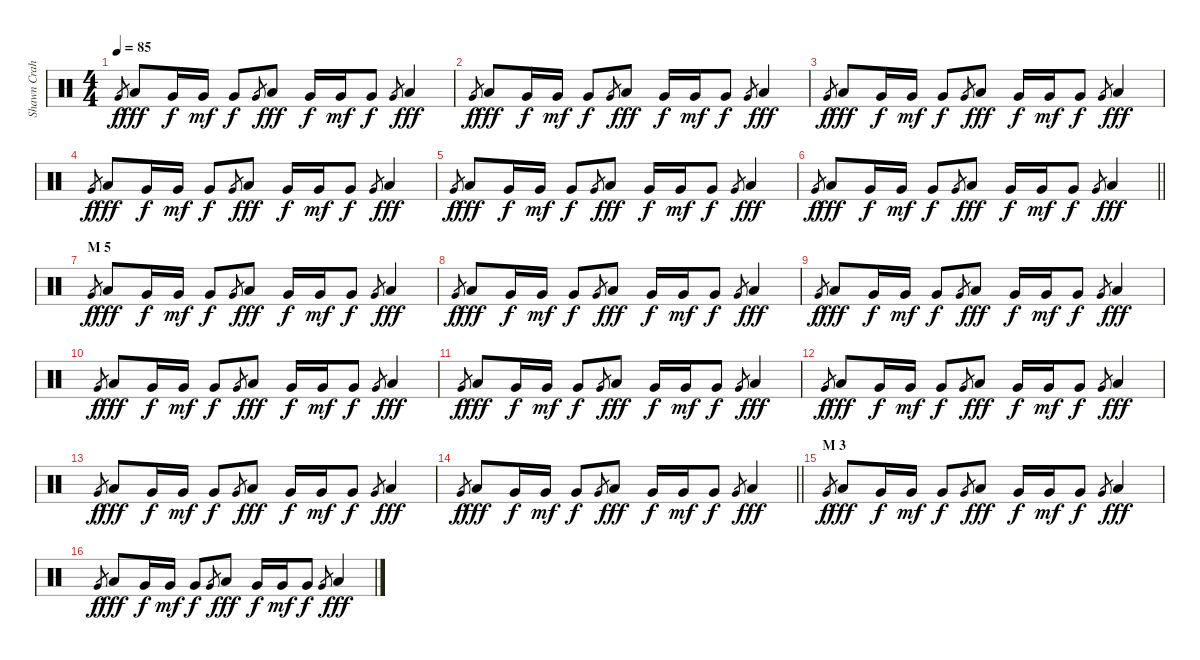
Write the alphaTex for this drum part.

\track ("Shawn Crahan" "Shawn Crah") {instrument percussion}
\staff {score}
\articulation defaults
\ts (4 4)
\tempo 85
\clef neutral
\ks c "Very Low Tom (hit)".8{gr dy f} "Low Tom (hit)".8{dy fff} "Very Low Tom (hit)".16{dy f} "Very Low Tom (hit)".16{dy mf} "Very Low Tom (hit)".8{dy f} "Very Low Tom (hit)".8{gr} "Low Tom (hit)".8{dy fff} "Very Low Tom (hit)".16{dy f} "Very Low Tom (hit)".16{dy mf} "Very Low Tom (hit)".8{dy f} "Very Low Tom (hit)".8{gr} "Low Tom (hit)".4{dy fff}
|
"Very Low Tom (hit)".8{gr dy f} "Low Tom (hit)".8{dy fff} "Very Low Tom (hit)".16{dy f} "Very Low Tom (hit)".16{dy mf} "Very Low Tom (hit)".8{dy f} "Very Low Tom (hit)".8{gr} "Low Tom (hit)".8{dy fff} "Very Low Tom (hit)".16{dy f} "Very Low Tom (hit)".16{dy mf} "Very Low Tom (hit)".8{dy f} "Very Low Tom (hit)".8{gr} "Low Tom (hit)".4{dy fff} |
"Very Low Tom (hit)".8{gr dy f} "Low Tom (hit)".8{dy fff} "Very Low Tom (hit)".16{dy f} "Very Low Tom (hit)".16{dy mf} "Very Low Tom (hit)".8{dy f} "Very Low Tom (hit)".8{gr} "Low Tom (hit)".8{dy fff} "Very Low Tom (hit)".16{dy f} "Very Low Tom (hit)".16{dy mf} "Very Low Tom (hit)".8{dy f} "Very Low Tom (hit)".8{gr} "Low Tom (hit)".4{dy fff} |
"Very Low Tom (hit)".8{gr dy f} "Low Tom (hit)".8{dy fff} "Very Low Tom (hit)".16{dy f} "Very Low Tom (hit)".16{dy mf} "Very Low Tom (hit)".8{dy f} "Very Low Tom (hit)".8{gr} "Low Tom (hit)".8{dy fff} "Very Low Tom (hit)".16{dy f} "Very Low Tom (hit)".16{dy mf} "Very Low Tom (hit)".8{dy f} "Very Low Tom (hit)".8{gr} "Low Tom (hit)".4{dy fff} |
"Very Low Tom (hit)".8{gr dy f} "Low Tom (hit)".8{dy fff} "Very Low Tom (hit)".16{dy f} "Very Low Tom (hit)".16{dy mf} "Very Low Tom (hit)".8{dy f} "Very Low Tom (hit)".8{gr} "Low Tom (hit)".8{dy fff} "Very Low Tom (hit)".16{dy f} "Very Low Tom (hit)".16{dy mf} "Very Low Tom (hit)".8{dy f} "Very Low Tom (hit)".8{gr} "Low Tom (hit)".4{dy fff} |
\barLineRight lightlight "Very Low Tom (hit)".8{gr dy f} "Low Tom (hit)".8{dy fff} "Very Low Tom (hit)".16{dy f} "Very Low Tom (hit)".16{dy mf} "Very Low Tom (hit)".8{dy f} "Very Low Tom (hit)".8{gr} "Low Tom (hit)".8{dy fff} "Very Low Tom (hit)".16{dy f} "Very Low Tom (hit)".16{dy mf} "Very Low Tom (hit)".8{dy f} "Very Low Tom (hit)".8{gr} "Low Tom (hit)".4{dy fff}
|
\section ("" "M 5")
"Very Low Tom (hit)".8{gr dy f} "Low Tom (hit)".8{dy fff} "Very Low Tom (hit)".16{dy f} "Very Low Tom (hit)".16{dy mf} "Very Low Tom (hit)".8{dy f} "Very Low Tom (hit)".8{gr} "Low Tom (hit)".8{dy fff} "Very Low Tom (hit)".16{dy f} "Very Low Tom (hit)".16{dy mf} "Very Low Tom (hit)".8{dy f} "Very Low Tom (hit)".8{gr} "Low Tom (hit)".4{dy fff} |
"Very Low Tom (hit)".8{gr dy f} "Low Tom (hit)".8{dy fff} "Very Low Tom (hit)".16{dy f} "Very Low Tom (hit)".16{dy mf} "Very Low Tom (hit)".8{dy f} "Very Low Tom (hit)".8{gr} "Low Tom (hit)".8{dy fff} "Very Low Tom (hit)".16{dy f} "Very Low Tom (hit)".16{dy mf} "Very Low Tom (hit)".8{dy f} "Very Low Tom (hit)".8{gr} "Low Tom (hit)".4{dy fff} |
"Very Low Tom (hit)".8{gr dy f} "Low Tom (hit)".8{dy fff} "Very Low Tom (hit)".16{dy f} "Very Low Tom (hit)".16{dy mf} "Very Low Tom (hit)".8{dy f} "Very Low Tom (hit)".8{gr} "Low Tom (hit)".8{dy fff} "Very Low Tom (hit)".16{dy f} "Very Low Tom (hit)".16{dy mf} "Very Low Tom (hit)".8{dy f} "Very Low Tom (hit)".8{gr} "Low Tom (hit)".4{dy fff} |
"Very Low Tom (hit)".8{gr dy f} "Low Tom (hit)".8{dy fff} "Very Low Tom (hit)".16{dy f} "Very Low Tom (hit)".16{dy mf} "Very Low Tom (hit)".8{dy f} "Very Low Tom (hit)".8{gr} "Low Tom (hit)".8{dy fff} "Very Low Tom (hit)".16{dy f} "Very Low Tom (hit)".16{dy mf} "Very Low Tom (hit)".8{dy f} "Very Low Tom (hit)".8{gr} "Low Tom (hit)".4{dy fff} |
"Very Low Tom (hit)".8{gr dy f} "Low Tom (hit)".8{dy fff} "Very Low Tom (hit)".16{dy f} "Very Low Tom (hit)".16{dy mf} "Very Low Tom (hit)".8{dy f} "Very Low Tom (hit)".8{gr} "Low Tom (hit)".8{dy fff} "Very Low Tom (hit)".16{dy f} "Very Low Tom (hit)".16{dy mf} "Very Low Tom (hit)".8{dy f} "Very Low Tom (hit)".8{gr} "Low Tom (hit)".4{dy fff} |
"Very Low Tom (hit)".8{gr dy f} "Low Tom (hit)".8{dy fff} "Very Low Tom (hit)".16{dy f} "Very Low Tom (hit)".16{dy mf} "Very Low Tom (hit)".8{dy f} "Very Low Tom (hit)".8{gr} "Low Tom (hit)".8{dy fff} "Very Low Tom (hit)".16{dy f} "Very Low Tom (hit)".16{dy mf} "Very Low Tom (hit)".8{dy f} "Very Low Tom (hit)".8{gr} "Low Tom (hit)".4{dy fff} |
"Very Low Tom (hit)".8{gr dy f} "Low Tom (hit)".8{dy fff} "Very Low Tom (hit)".16{dy f} "Very Low Tom (hit)".16{dy mf} "Very Low Tom (hit)".8{dy f} "Very Low Tom (hit)".8{gr} "Low Tom (hit)".8{dy fff} "Very Low Tom (hit)".16{dy f} "Very Low Tom (hit)".16{dy mf} "Very Low Tom (hit)".8{dy f} "Very Low Tom (hit)".8{gr} "Low Tom (hit)".4{dy fff} |
\barLineRight lightlight "Very Low Tom (hit)".8{gr dy f} "Low Tom (hit)".8{dy fff} "Very Low Tom (hit)".16{dy f} "Very Low Tom (hit)".16{dy mf} "Very Low Tom (hit)".8{dy f} "Very Low Tom (hit)".8{gr} "Low Tom (hit)".8{dy fff} "Very Low Tom (hit)".16{dy f} "Very Low Tom (hit)".16{dy mf} "Very Low Tom (hit)".8{dy f} "Very Low Tom (hit)".8{gr} "Low Tom (hit)".4{dy fff}
|
\section ("" "M 3")
"Very Low Tom (hit)".8{gr dy f} "Low Tom (hit)".8{dy fff} "Very Low Tom (hit)".16{dy f} "Very Low Tom (hit)".16{dy mf} "Very Low Tom (hit)".8{dy f} "Very Low Tom (hit)".8{gr} "Low Tom (hit)".8{dy fff} "Very Low Tom (hit)".16{dy f} "Very Low Tom (hit)".16{dy mf} "Very Low Tom (hit)".8{dy f} "Very Low Tom (hit)".8{gr} "Low Tom (hit)".4{dy fff} |
"Very Low Tom (hit)".8{gr dy f} "Low Tom (hit)".8{dy fff} "Very Low Tom (hit)".16{dy f} "Very Low Tom (hit)".16{dy mf} "Very Low Tom (hit)".8{dy f} "Very Low Tom (hit)".8{gr} "Low Tom (hit)".8{dy fff} "Very Low Tom (hit)".16{dy f} "Very Low Tom (hit)".16{dy mf} "Very Low Tom (hit)".8{dy f} "Very Low Tom (hit)".8{gr} "Low Tom (hit)".4{dy fff}
